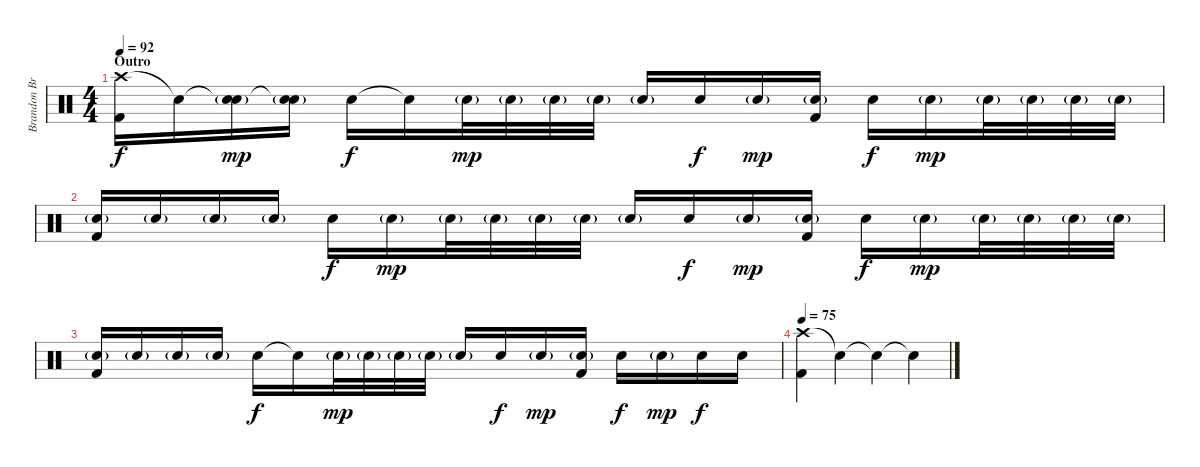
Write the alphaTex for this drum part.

\track ("Brandon Brown (Drums)" "Brandon Br") {instrument percussion}
\staff {score}
\articulation defaults
\ts (4 4)
\section ("" "Outro")
\tempo 92
\clef neutral
\ks c
("Crash high (hit)" "Kick (hit) 2").16{dy f} "Snare (hit)"{t}.16 ("Snare (hit)"{t} "Electric Snare (hit)"{g}).16{dy mp} ("Snare (hit)"{t} "Electric Snare (hit)"{g}).16 "Electric Snare (hit)".16{dy f} "Snare (hit)"{t}.16 "Electric Snare (hit)"{g}.32{dy mp} "Electric Snare (hit)"{g}.32 "Electric Snare (hit)"{g}.32 "Electric Snare (hit)"{g}.32 "Electric Snare (hit)"{g}.16 "Electric Snare (hit)".16{dy f} "Electric Snare (hit)"{g}.16{dy mp} ("Electric Snare (hit)"{g} "Kick (hit) 2").16 "Electric Snare (hit)".16{dy f} "Electric Snare (hit)"{g}.16{dy mp} "Electric Snare (hit)"{g}.32 "Electric Snare (hit)"{g}.32 "Electric Snare (hit)"{g}.32 "Electric Snare (hit)"{g}.32 |
("Electric Snare (hit)"{g} "Kick (hit) 2").16 "Electric Snare (hit)"{g}.16 "Electric Snare (hit)"{g}.16 "Electric Snare (hit)"{g}.16 "Electric Snare (hit)".16{dy f} "Electric Snare (hit)"{g}.16{dy mp} "Electric Snare (hit)"{g}.32 "Electric Snare (hit)"{g}.32 "Electric Snare (hit)"{g}.32 "Electric Snare (hit)"{g}.32 "Electric Snare (hit)"{g}.16 "Electric Snare (hit)".16{dy f} "Electric Snare (hit)"{g}.16{dy mp} ("Electric Snare (hit)"{g} "Kick (hit) 2").16 "Electric Snare (hit)".16{dy f} "Electric Snare (hit)"{g}.16{dy mp} "Electric Snare (hit)"{g}.32 "Electric Snare (hit)"{g}.32 "Electric Snare (hit)"{g}.32 "Electric Snare (hit)"{g}.32 |
("Electric Snare (hit)"{g} "Kick (hit) 2").16 "Electric Snare (hit)"{g}.16 "Electric Snare (hit)"{g}.16 "Electric Snare (hit)"{g}.16 "Electric Snare (hit)".16{dy f} "Snare (hit)"{t}.16 "Electric Snare (hit)"{g}.32{dy mp} "Electric Snare (hit)"{g}.32 "Electric Snare (hit)"{g}.32 "Electric Snare (hit)"{g}.32 "Electric Snare (hit)"{g}.16 "Electric Snare (hit)".16{dy f} "Electric Snare (hit)"{g}.16{dy mp} ("Electric Snare (hit)"{g} "Kick (hit) 2").16 "Electric Snare (hit)".16{dy f} "Electric Snare (hit)"{g}.16{dy mp} "Electric Snare (hit)".16{dy f} "Electric Snare (hit)".16 |
\tempo 75
("Crash high (hit)" "Kick (hit) 2").4 "Snare (hit)"{t}.4 "Snare (hit)"{t}.4 "Snare (hit)"{t}.4
